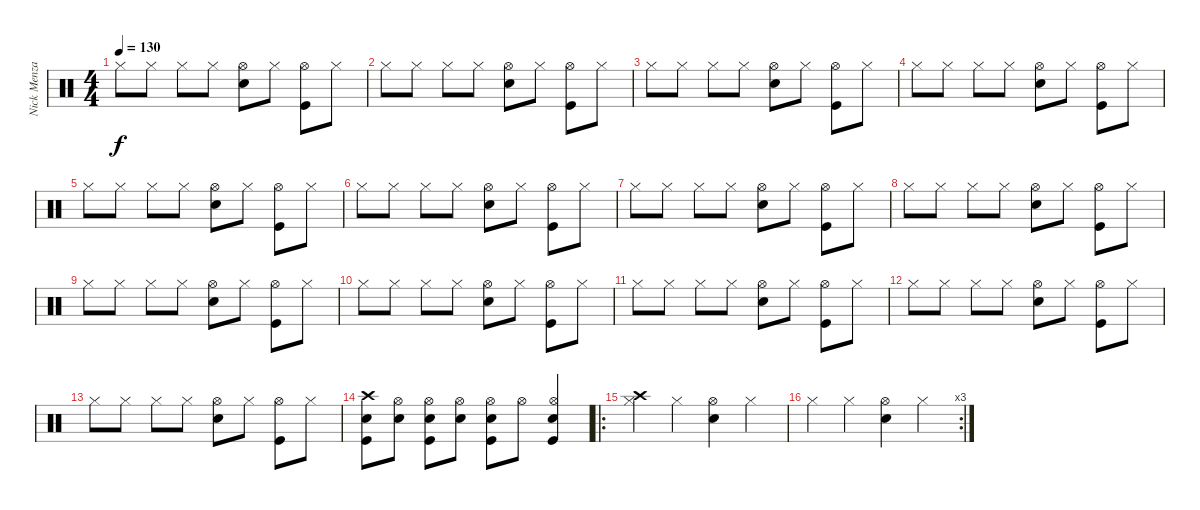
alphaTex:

\track ("Nick Menza" "Nick Menza") {instrument percussion}
\staff {score}
\articulation defaults
\ts (4 4)
\tempo 130
\clef neutral
\ks c "Hi-Hat (closed)".8{dy f} "Hi-Hat (closed)".8 "Hi-Hat (closed)".8 "Hi-Hat (closed)".8
("Snare (hit) 2" "Hi-Hat (open)").8 "Hi-Hat (closed)".8 ("Hi-Hat (open)" "Kick (hit)").8 "Hi-Hat (closed)".8 |
"Hi-Hat (closed)".8 "Hi-Hat (closed)".8 "Hi-Hat (closed)".8 "Hi-Hat (closed)".8 ("Snare (hit) 2" "Hi-Hat (open)").8 "Hi-Hat (closed)".8 ("Hi-Hat (open)" "Kick (hit)").8 "Hi-Hat (closed)".8 |
"Hi-Hat (closed)".8 "Hi-Hat (closed)".8 "Hi-Hat (closed)".8 "Hi-Hat (closed)".8 ("Snare (hit) 2" "Hi-Hat (open)").8 "Hi-Hat (closed)".8 ("Hi-Hat (open)" "Kick (hit)").8 "Hi-Hat (closed)".8 |
"Hi-Hat (closed)".8 "Hi-Hat (closed)".8 "Hi-Hat (closed)".8 "Hi-Hat (closed)".8 ("Snare (hit) 2" "Hi-Hat (open)").8 "Hi-Hat (closed)".8 ("Hi-Hat (open)" "Kick (hit)").8 "Hi-Hat (closed)".8 |
"Hi-Hat (closed)".8 "Hi-Hat (closed)".8 "Hi-Hat (closed)".8 "Hi-Hat (closed)".8 ("Snare (hit) 2" "Hi-Hat (open)").8 "Hi-Hat (closed)".8 ("Hi-Hat (open)" "Kick (hit)").8 "Hi-Hat (closed)".8 |
"Hi-Hat (closed)".8 "Hi-Hat (closed)".8 "Hi-Hat (closed)".8 "Hi-Hat (closed)".8 ("Snare (hit) 2" "Hi-Hat (open)").8 "Hi-Hat (closed)".8 ("Hi-Hat (open)" "Kick (hit)").8 "Hi-Hat (closed)".8 |
"Hi-Hat (closed)".8 "Hi-Hat (closed)".8 "Hi-Hat (closed)".8 "Hi-Hat (closed)".8 ("Snare (hit) 2" "Hi-Hat (open)").8 "Hi-Hat (closed)".8 ("Hi-Hat (open)" "Kick (hit)").8 "Hi-Hat (closed)".8 |
"Hi-Hat (closed)".8 "Hi-Hat (closed)".8 "Hi-Hat (closed)".8 "Hi-Hat (closed)".8 ("Snare (hit) 2" "Hi-Hat (open)").8 "Hi-Hat (closed)".8 ("Hi-Hat (open)" "Kick (hit)").8 "Hi-Hat (closed)".8 |
"Hi-Hat (closed)".8 "Hi-Hat (closed)".8 "Hi-Hat (closed)".8 "Hi-Hat (closed)".8 ("Snare (hit) 2" "Hi-Hat (open)").8 "Hi-Hat (closed)".8 ("Hi-Hat (open)" "Kick (hit)").8 "Hi-Hat (closed)".8 |
"Hi-Hat (closed)".8 "Hi-Hat (closed)".8 "Hi-Hat (closed)".8 "Hi-Hat (closed)".8 ("Snare (hit) 2" "Hi-Hat (open)").8 "Hi-Hat (closed)".8 ("Hi-Hat (open)" "Kick (hit)").8 "Hi-Hat (closed)".8 |
"Hi-Hat (closed)".8 "Hi-Hat (closed)".8 "Hi-Hat (closed)".8 "Hi-Hat (closed)".8 ("Snare (hit) 2" "Hi-Hat (open)").8 "Hi-Hat (closed)".8 ("Hi-Hat (open)" "Kick (hit)").8 "Hi-Hat (closed)".8 |
"Hi-Hat (closed)".8 "Hi-Hat (closed)".8 "Hi-Hat (closed)".8 "Hi-Hat (closed)".8 ("Snare (hit) 2" "Hi-Hat (open)").8 "Hi-Hat (closed)".8 ("Hi-Hat (open)" "Kick (hit)").8 "Hi-Hat (closed)".8 |
"Hi-Hat (closed)".8 "Hi-Hat (closed)".8 "Hi-Hat (closed)".8 "Hi-Hat (closed)".8 ("Snare (hit) 2" "Hi-Hat (open)").8 "Hi-Hat (closed)".8 ("Hi-Hat (open)" "Kick (hit)").8 "Hi-Hat (closed)".8 |
("Crash high (hit)" "Snare (hit) 2" "Kick (hit)").8 ("Hi-Hat (open)" "Snare (hit) 2").8 ("Hi-Hat (open)" "Snare (hit) 2" "Kick (hit)").8 ("Hi-Hat (open)" "Snare (hit) 2").8 ("Hi-Hat (open)" "Snare (hit) 2" "Kick (hit)").8 "Hi-Hat (open)".8 ("Hi-Hat (open)" "Snare (hit) 2" "Kick (hit)").4 |
\ro
("Crash high (hit)" "Hi-Hat (closed)").4 "Hi-Hat (closed)".4 ("Hi-Hat (open)" "Snare (hit) 2").4 "Hi-Hat (closed)".4 |
\rc 3 "Hi-Hat (closed)".4 "Hi-Hat (closed)".4
("Snare (hit) 2" "Hi-Hat (open)").4 "Hi-Hat (closed)".4
